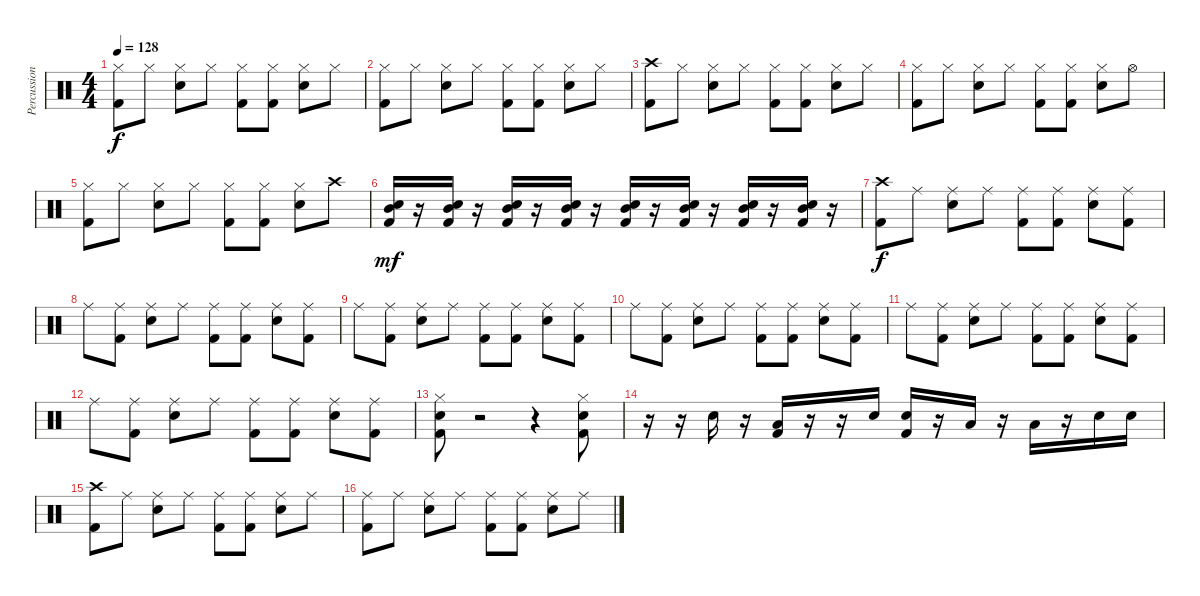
\track ("Percussion" "Percussion") {instrument percussion bank 10}
\staff {score}
\articulation defaults
\ts (4 4)
\tempo 128
\clef neutral
\ks c
("Hi-Hat (closed)" "Kick (hit) 2").8{dy f} "Hi-Hat (closed)".8 ("Hi-Hat (closed)" "Snare (hit) 2").8 "Hi-Hat (closed)".8 ("Hi-Hat (closed)" "Kick (hit) 2").8 ("Hi-Hat (closed)" "Kick (hit) 2").8 ("Hi-Hat (closed)" "Snare (hit) 2").8 "Hi-Hat (closed)".8 |
("Hi-Hat (closed)" "Kick (hit) 2").8 "Hi-Hat (closed)".8 ("Hi-Hat (closed)" "Snare (hit) 2").8 "Hi-Hat (closed)".8 ("Hi-Hat (closed)" "Kick (hit) 2").8 ("Hi-Hat (closed)" "Kick (hit) 2").8 ("Hi-Hat (closed)" "Snare (hit) 2").8 "Hi-Hat (closed)".8 |
("Crash high (hit)" "Kick (hit) 2").8 "Hi-Hat (closed)".8 ("Hi-Hat (closed)" "Snare (hit) 2").8 "Hi-Hat (closed)".8 ("Hi-Hat (closed)" "Kick (hit) 2").8 ("Hi-Hat (closed)" "Kick (hit) 2").8 ("Hi-Hat (closed)" "Snare (hit) 2").8 "Hi-Hat (closed)".8 |
("Hi-Hat (closed)" "Kick (hit) 2").8 "Hi-Hat (closed)".8 ("Hi-Hat (closed)" "Snare (hit) 2").8 "Hi-Hat (closed)".8 ("Hi-Hat (closed)" "Kick (hit) 2").8 ("Hi-Hat (closed)" "Kick (hit) 2").8 ("Hi-Hat (closed)" "Snare (hit) 2").8 "Hi-Hat (open)".8 |
("Hi-Hat (closed)" "Kick (hit) 2").8 "Hi-Hat (closed)".8 ("Hi-Hat (closed)" "Snare (hit) 2").8 "Hi-Hat (closed)".8 ("Hi-Hat (closed)" "Kick (hit) 2").8 ("Hi-Hat (closed)" "Kick (hit) 2").8 ("Hi-Hat (closed)" "Snare (hit) 2").8 "Crash high (hit)".8 |
("Mid Tom (hit)" "Snare (hit) 2" "Kick (hit) 2").16{dy mf} r.16 ("Mid Tom (hit)" "Snare (hit) 2" "Kick (hit) 2").16 r.16 ("Mid Tom (hit)" "Snare (hit) 2" "Kick (hit) 2").16 r.16 ("Mid Tom (hit)" "Snare (hit) 2" "Kick (hit) 2").16 r.16 ("Mid Tom (hit)" "Snare (hit) 2" "Kick (hit) 2").16 r.16 ("Mid Tom (hit)" "Snare (hit) 2" "Kick (hit) 2").16 r.16 ("Mid Tom (hit)" "Snare (hit) 2" "Kick (hit) 2").16 r.16 ("Mid Tom (hit)" "Snare (hit) 2" "Kick (hit) 2").16 r.16 |
("Crash high (hit)" "Kick (hit) 2").8{dy f} "Ride (middle)".8 ("Ride (middle)" "Snare (hit) 2").8 "Ride (middle)".8 ("Ride (middle)" "Kick (hit) 2").8 ("Ride (middle)" "Kick (hit) 2").8 ("Ride (middle)" "Snare (hit) 2").8 ("Ride (middle)" "Kick (hit) 2").8 |
"Ride (middle)".8 ("Ride (middle)" "Kick (hit) 2").8 ("Ride (middle)" "Snare (hit) 2").8 "Ride (middle)".8 ("Ride (middle)" "Kick (hit) 2").8 ("Ride (middle)" "Kick (hit) 2").8 ("Ride (middle)" "Snare (hit) 2").8 ("Ride (middle)" "Kick (hit) 2").8 |
"Ride (middle)".8 ("Ride (middle)" "Kick (hit) 2").8 ("Ride (middle)" "Snare (hit) 2").8 "Ride (middle)".8 ("Ride (middle)" "Kick (hit) 2").8 ("Ride (middle)" "Kick (hit) 2").8 ("Ride (middle)" "Snare (hit) 2").8 ("Ride (middle)" "Kick (hit) 2").8 |
"Ride (middle)".8 ("Ride (middle)" "Kick (hit) 2").8 ("Ride (middle)" "Snare (hit) 2").8 "Ride (middle)".8 ("Ride (middle)" "Kick (hit) 2").8 ("Ride (middle)" "Kick (hit) 2").8 ("Ride (middle)" "Snare (hit) 2").8 ("Ride (middle)" "Kick (hit) 2").8 |
"Ride (middle)".8 ("Ride (middle)" "Kick (hit) 2").8 ("Ride (middle)" "Snare (hit) 2").8 "Ride (middle)".8 ("Ride (middle)" "Kick (hit) 2").8 ("Ride (middle)" "Kick (hit) 2").8 ("Ride (middle)" "Snare (hit) 2").8 ("Ride (middle)" "Kick (hit) 2").8 |
"Ride (middle)".8 ("Ride (middle)" "Kick (hit) 2").8 ("Ride (middle)" "Snare (hit) 2").8 "Ride (middle)".8 ("Ride (middle)" "Kick (hit) 2").8 ("Ride (middle)" "Kick (hit) 2").8 ("Ride (middle)" "Snare (hit) 2").8 ("Ride (middle)" "Kick (hit) 2").8 |
("Hi-Hat (closed)" "Snare (hit) 2" "Kick (hit) 2").8 r.2 r.4 ("Hi-Hat (closed)" "Snare (hit) 2" "Kick (hit) 2").8 |
r.16 r.16 "Electric Snare (hit)".16 r.16 ("Low Tom (hit)" "Kick (hit) 2").16 r.16 r.16 "Electric Snare (hit)".16 ("Electric Snare (hit)" "Kick (hit) 2").16 r.16 "Low Tom (hit)".16 r.16 "Low Floor Tom (hit)".16 r.16 "Electric Snare (hit)".16 "Electric Snare (hit)".16 |
("Crash high (hit)" "Kick (hit) 2").8 "Ride (middle)".8 ("Ride (middle)" "Snare (hit) 2").8 "Ride (middle)".8 ("Ride (middle)" "Kick (hit) 2").8 ("Ride (middle)" "Kick (hit) 2").8 ("Ride (middle)" "Snare (hit) 2").8 "Ride (middle)".8 |
("Ride (middle)" "Kick (hit) 2").8 "Ride (middle)".8 ("Ride (middle)" "Snare (hit) 2").8 "Ride (middle)".8 ("Ride (middle)" "Kick (hit) 2").8 ("Ride (middle)" "Kick (hit) 2").8 ("Ride (middle)" "Snare (hit) 2").8 "Ride (middle)".8
